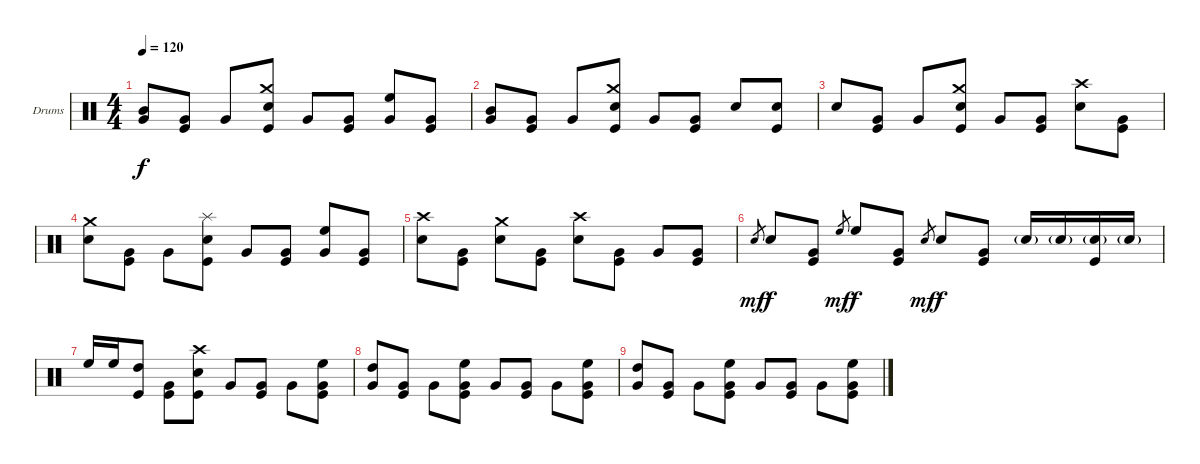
\bracketExtendMode groupsimilarinstruments
\firstSystemTrackNameOrientation horizontal
\otherSystemsTrackNameOrientation horizontal
\track ("Drumkit" "Drums") {instrument percussion}
\staff {score}
\articulation defaults
\ts (4 4)
\tempo 120
\clef neutral
\ks c
("Mid Tom (hit)" "Very Low Tom (hit)").8{dy f} ("Very Low Tom (hit)" "Kick (hit)").8 "Very Low Tom (hit)".8 ("Crash medium (hit)" "Snare (hit) 2" "Kick (hit)").8 "Very Low Tom (hit)".8 ("Very Low Tom (hit)" "Kick (hit)").8 ("High Floor Tom (hit)" "Very Low Tom (hit)").8 ("Very Low Tom (hit)" "Kick (hit)").8 |
("Mid Tom (hit)" "Very Low Tom (hit)").8 ("Very Low Tom (hit)" "Kick (hit)").8 "Very Low Tom (hit)".8 ("Crash medium (hit)" "Snare (hit) 2" "Kick (hit)").8 "Very Low Tom (hit)".8 ("Very Low Tom (hit)" "Kick (hit)").8 "Snare (hit) 2".8 ("Snare (hit) 2" "Kick (hit)").8 |
"Snare (hit) 2".8 ("Very Low Tom (hit)" "Kick (hit)").8 "Very Low Tom (hit)".8 ("Crash medium (hit)" "Snare (hit) 2" "Kick (hit)").8 "Very Low Tom (hit)".8 ("Very Low Tom (hit)" "Kick (hit)").8 ("Crash high (hit)" "Snare (hit) 2").8 ("Very Low Tom (hit)" "Kick (hit)").8 |
("Crash medium (hit)" "Snare (hit) 2").8 ("Very Low Tom (hit)" "Kick (hit)").8 "Very Low Tom (hit)".8 ("Splash (hit)" "Snare (hit) 2" "Kick (hit)").8 "Very Low Tom (hit)".8 ("Very Low Tom (hit)" "Kick (hit)").8 ("High Floor Tom (hit)" "Very Low Tom (hit)").8 ("Very Low Tom (hit)" "Kick (hit)").8 |
("Crash high (hit)" "Snare (hit) 2").8 ("Very Low Tom (hit)" "Kick (hit)").8 ("Crash medium (hit)" "Snare (hit) 2").8 ("Very Low Tom (hit)" "Kick (hit)").8 ("Crash high (hit)" "Snare (hit) 2").8 ("Very Low Tom (hit)" "Kick (hit)").8 "Very Low Tom (hit)".8 ("Very Low Tom (hit)" "Kick (hit)").8 |
"Snare (hit) 2".8{gr dy mf} "Snare (hit) 2".8{dy f} ("Very Low Tom (hit)" "Kick (hit)").8 "High Floor Tom (hit)".8{gr dy mf} "High Floor Tom (hit)".8{dy f} ("Very Low Tom (hit)" "Kick (hit)").8 "Snare (hit) 2".8{gr dy mf} "Snare (hit) 2".8{dy f} ("Very Low Tom (hit)" "Kick (hit)").8 "Snare (hit) 2"{g}.16 "Snare (hit) 2"{g}.16 ("Snare (hit) 2"{g} "Kick (hit)").16 "Snare (hit) 2"{g}.16 |
"High Floor Tom (hit)".16 "High Floor Tom (hit)".16 ("High Tom (hit)" "Kick (hit)").8 ("Very Low Tom (hit)" "Kick (hit)").8 ("Crash high (hit)" "Snare (hit) 2" "Kick (hit)").8 "Very Low Tom (hit)".8 ("Very Low Tom (hit)" "Kick (hit)").8 "Very Low Tom (hit)".8 ("High Floor Tom (hit)" "Very Low Tom (hit)" "Kick (hit)").8 |
("High Tom (hit)" "Very Low Tom (hit)").8 ("Very Low Tom (hit)" "Kick (hit)").8 "Very Low Tom (hit)".8 ("High Floor Tom (hit)" "Very Low Tom (hit)" "Kick (hit)").8 "Very Low Tom (hit)".8 ("Very Low Tom (hit)" "Kick (hit)").8 "Very Low Tom (hit)".8 ("High Floor Tom (hit)" "Very Low Tom (hit)" "Kick (hit)").8 |
("High Tom (hit)" "Very Low Tom (hit)").8 ("Very Low Tom (hit)" "Kick (hit)").8 "Very Low Tom (hit)".8 ("High Floor Tom (hit)" "Very Low Tom (hit)" "Kick (hit)").8 "Very Low Tom (hit)".8 ("Very Low Tom (hit)" "Kick (hit)").8 "Very Low Tom (hit)".8 ("High Floor Tom (hit)" "Very Low Tom (hit)" "Kick (hit)").8
